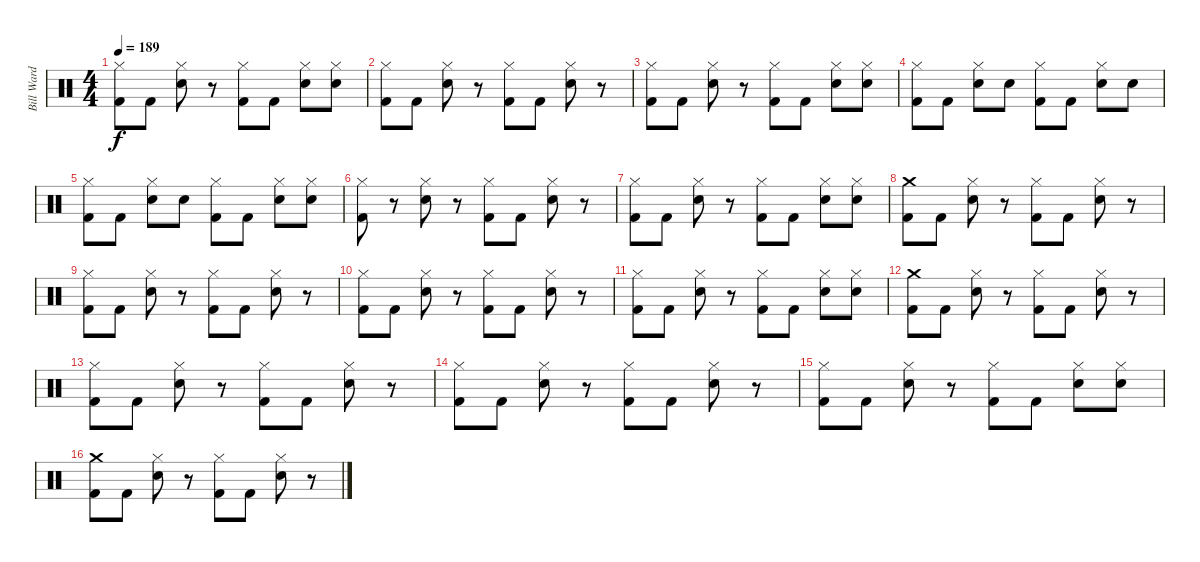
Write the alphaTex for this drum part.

\track ("Bill Ward" "Bill Ward") {instrument percussion}
\staff {score}
\articulation defaults
\ts (4 4)
\tempo 189
\clef neutral
\ks c
("Hi-Hat (closed)" "Kick (hit) 2").8{dy f} "Kick (hit) 2".8 ("Hi-Hat (closed)" "Electric Snare (hit)").8 r.8 ("Hi-Hat (closed)" "Kick (hit) 2").8 "Kick (hit) 2".8 ("Hi-Hat (closed)" "Electric Snare (hit)").8 ("Electric Snare (hit)" "Hi-Hat (closed)").8 |
("Hi-Hat (closed)" "Kick (hit) 2").8 "Kick (hit) 2".8 ("Hi-Hat (closed)" "Electric Snare (hit)").8 r.8 ("Kick (hit) 2" "Hi-Hat (closed)").8 "Kick (hit) 2".8 ("Hi-Hat (closed)" "Electric Snare (hit)").8 r.8 |
("Hi-Hat (closed)" "Kick (hit) 2").8 "Kick (hit) 2".8 ("Hi-Hat (closed)" "Electric Snare (hit)").8 r.8 ("Kick (hit) 2" "Hi-Hat (closed)").8 "Kick (hit) 2".8 ("Hi-Hat (closed)" "Electric Snare (hit)").8 ("Hi-Hat (closed)" "Electric Snare (hit)").8 |
("Hi-Hat (closed)" "Kick (hit) 2").8 "Kick (hit) 2".8 ("Hi-Hat (closed)" "Electric Snare (hit)").8 "Electric Snare (hit)".8 ("Kick (hit) 2" "Hi-Hat (closed)").8 "Kick (hit) 2".8 ("Electric Snare (hit)" "Hi-Hat (closed)").8 "Electric Snare (hit)".8 |
("Hi-Hat (closed)" "Kick (hit) 2").8 "Kick (hit) 2".8 ("Hi-Hat (closed)" "Electric Snare (hit)").8 "Electric Snare (hit)".8 ("Hi-Hat (closed)" "Kick (hit) 2").8 "Kick (hit) 2".8 ("Hi-Hat (closed)" "Electric Snare (hit)").8 ("Hi-Hat (closed)" "Electric Snare (hit)").8 |
("Hi-Hat (closed)" "Kick (hit) 2").8 r.8 ("Hi-Hat (closed)" "Electric Snare (hit)").8 r.8 ("Hi-Hat (closed)" "Kick (hit) 2").8 "Kick (hit) 2".8 ("Electric Snare (hit)" "Hi-Hat (closed)").8 r.8 |
("Kick (hit) 2" "Hi-Hat (closed)").8 "Kick (hit) 2".8 ("Hi-Hat (closed)" "Electric Snare (hit)").8 r.8 ("Kick (hit) 2" "Hi-Hat (closed)").8 "Kick (hit) 2".8 ("Hi-Hat (closed)" "Electric Snare (hit)").8 ("Hi-Hat (closed)" "Electric Snare (hit)").8 |
("Kick (hit) 2" "Crash medium (hit)").8 "Kick (hit) 2".8 ("Hi-Hat (closed)" "Electric Snare (hit)").8 r.8 ("Hi-Hat (closed)" "Kick (hit) 2").8 "Kick (hit) 2".8 ("Electric Snare (hit)" "Hi-Hat (closed)").8 r.8 |
("Hi-Hat (closed)" "Kick (hit) 2").8 "Kick (hit) 2".8 ("Electric Snare (hit)" "Hi-Hat (closed)").8 r.8 ("Hi-Hat (closed)" "Kick (hit) 2").8 "Kick (hit) 2".8 ("Electric Snare (hit)" "Hi-Hat (closed)").8 r.8 |
("Kick (hit) 2" "Hi-Hat (closed)").8 "Kick (hit) 2".8 ("Hi-Hat (closed)" "Electric Snare (hit)").8 r.8 ("Hi-Hat (closed)" "Kick (hit) 2").8 "Kick (hit) 2".8 ("Hi-Hat (closed)" "Electric Snare (hit)").8 r.8 |
("Hi-Hat (closed)" "Kick (hit) 2").8 "Kick (hit) 2".8 ("Hi-Hat (closed)" "Electric Snare (hit)").8 r.8 ("Hi-Hat (closed)" "Kick (hit) 2").8 "Kick (hit) 2".8 ("Hi-Hat (closed)" "Electric Snare (hit)").8 ("Hi-Hat (closed)" "Electric Snare (hit)").8 |
("Kick (hit) 2" "Crash medium (hit)").8 "Kick (hit) 2".8 ("Hi-Hat (closed)" "Electric Snare (hit)").8 r.8 ("Kick (hit) 2" "Hi-Hat (closed)").8 "Kick (hit) 2".8 ("Hi-Hat (closed)" "Electric Snare (hit)").8 r.8 |
("Hi-Hat (closed)" "Kick (hit) 2").8 "Kick (hit) 2".8 ("Electric Snare (hit)" "Hi-Hat (closed)").8 r.8 ("Kick (hit) 2" "Hi-Hat (closed)").8 "Kick (hit) 2".8 ("Hi-Hat (closed)" "Electric Snare (hit)").8 r.8 |
("Kick (hit) 2" "Hi-Hat (closed)").8 "Kick (hit) 2".8 ("Hi-Hat (closed)" "Electric Snare (hit)").8 r.8 ("Hi-Hat (closed)" "Kick (hit) 2").8 "Kick (hit) 2".8 ("Electric Snare (hit)" "Hi-Hat (closed)").8 r.8 |
("Hi-Hat (closed)" "Kick (hit) 2").8 "Kick (hit) 2".8 ("Hi-Hat (closed)" "Electric Snare (hit)").8 r.8 ("Hi-Hat (closed)" "Kick (hit) 2").8 "Kick (hit) 2".8 ("Electric Snare (hit)" "Hi-Hat (closed)").8 ("Hi-Hat (closed)" "Electric Snare (hit)").8 |
("Kick (hit) 2" "Crash medium (hit)").8 "Kick (hit) 2".8 ("Electric Snare (hit)" "Hi-Hat (closed)").8 r.8 ("Hi-Hat (closed)" "Kick (hit) 2").8 "Kick (hit) 2".8 ("Electric Snare (hit)" "Hi-Hat (closed)").8 r.8
